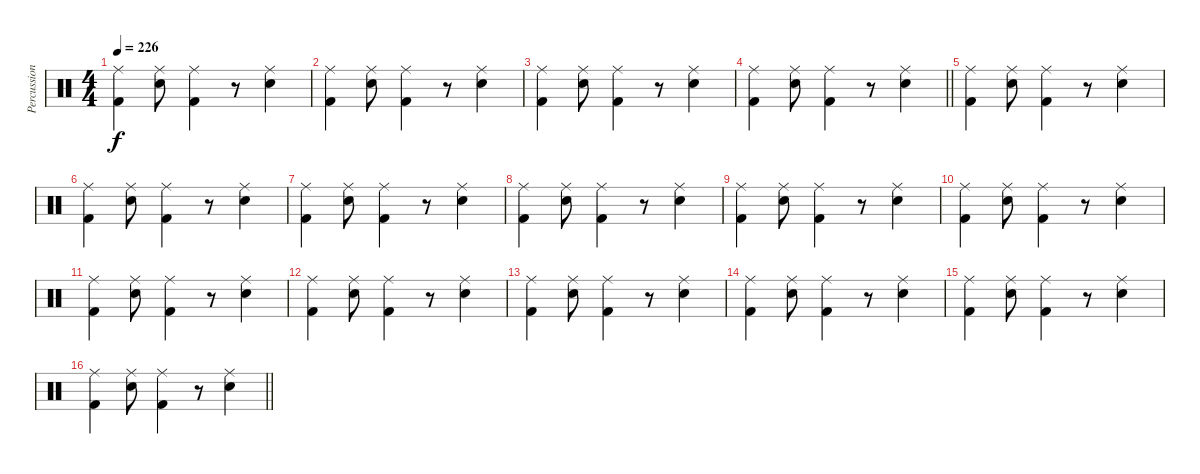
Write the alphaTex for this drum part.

\track ("Percussion" "Percussion") {instrument percussion}
\staff {score}
\articulation defaults
\ts (4 4)
\tempo 226
\clef neutral
\ks c
("Ride (middle)" "Kick (hit) 2").4{dy f} ("Ride (middle)" "Snare (hit) 2").8 ("Ride (middle)" "Kick (hit) 2").4 r.8 ("Ride (middle)" "Snare (hit) 2").4 |
("Ride (middle)" "Kick (hit) 2").4 ("Ride (middle)" "Snare (hit) 2").8 ("Ride (middle)" "Kick (hit) 2").4 r.8 ("Ride (middle)" "Snare (hit) 2").4 |
("Ride (middle)" "Kick (hit) 2").4 ("Ride (middle)" "Snare (hit) 2").8 ("Ride (middle)" "Kick (hit) 2").4 r.8 ("Ride (middle)" "Snare (hit) 2").4 |
\barLineRight lightlight
("Ride (middle)" "Kick (hit) 2").4 ("Ride (middle)" "Snare (hit) 2").8 ("Ride (middle)" "Kick (hit) 2").4 r.8 ("Ride (middle)" "Snare (hit) 2").4 |
("Ride (middle)" "Kick (hit) 2").4 ("Ride (middle)" "Snare (hit) 2").8 ("Ride (middle)" "Kick (hit) 2").4 r.8 ("Ride (middle)" "Snare (hit) 2").4 |
("Ride (middle)" "Kick (hit) 2").4 ("Ride (middle)" "Snare (hit) 2").8 ("Ride (middle)" "Kick (hit) 2").4 r.8 ("Ride (middle)" "Snare (hit) 2").4 |
("Ride (middle)" "Kick (hit) 2").4 ("Ride (middle)" "Snare (hit) 2").8 ("Ride (middle)" "Kick (hit) 2").4 r.8 ("Ride (middle)" "Snare (hit) 2").4 |
("Ride (middle)" "Kick (hit) 2").4 ("Ride (middle)" "Snare (hit) 2").8 ("Ride (middle)" "Kick (hit) 2").4 r.8 ("Ride (middle)" "Snare (hit) 2").4 |
("Ride (middle)" "Kick (hit) 2").4 ("Ride (middle)" "Snare (hit) 2").8 ("Ride (middle)" "Kick (hit) 2").4 r.8 ("Ride (middle)" "Snare (hit) 2").4 |
("Ride (middle)" "Kick (hit) 2").4 ("Ride (middle)" "Snare (hit) 2").8 ("Ride (middle)" "Kick (hit) 2").4 r.8 ("Ride (middle)" "Snare (hit) 2").4 |
("Ride (middle)" "Kick (hit) 2").4 ("Ride (middle)" "Snare (hit) 2").8 ("Ride (middle)" "Kick (hit) 2").4 r.8 ("Ride (middle)" "Snare (hit) 2").4 |
("Ride (middle)" "Kick (hit) 2").4 ("Ride (middle)" "Snare (hit) 2").8 ("Ride (middle)" "Kick (hit) 2").4 r.8 ("Ride (middle)" "Snare (hit) 2").4 |
("Ride (middle)" "Kick (hit) 2").4 ("Ride (middle)" "Snare (hit) 2").8 ("Ride (middle)" "Kick (hit) 2").4 r.8 ("Ride (middle)" "Snare (hit) 2").4 |
("Ride (middle)" "Kick (hit) 2").4 ("Ride (middle)" "Snare (hit) 2").8 ("Ride (middle)" "Kick (hit) 2").4 r.8 ("Ride (middle)" "Snare (hit) 2").4 |
("Ride (middle)" "Kick (hit) 2").4 ("Ride (middle)" "Snare (hit) 2").8 ("Ride (middle)" "Kick (hit) 2").4 r.8 ("Ride (middle)" "Snare (hit) 2").4 |
\barLineRight lightlight
("Ride (middle)" "Kick (hit) 2").4 ("Ride (middle)" "Snare (hit) 2").8 ("Ride (middle)" "Kick (hit) 2").4 r.8 ("Ride (middle)" "Snare (hit) 2").4
